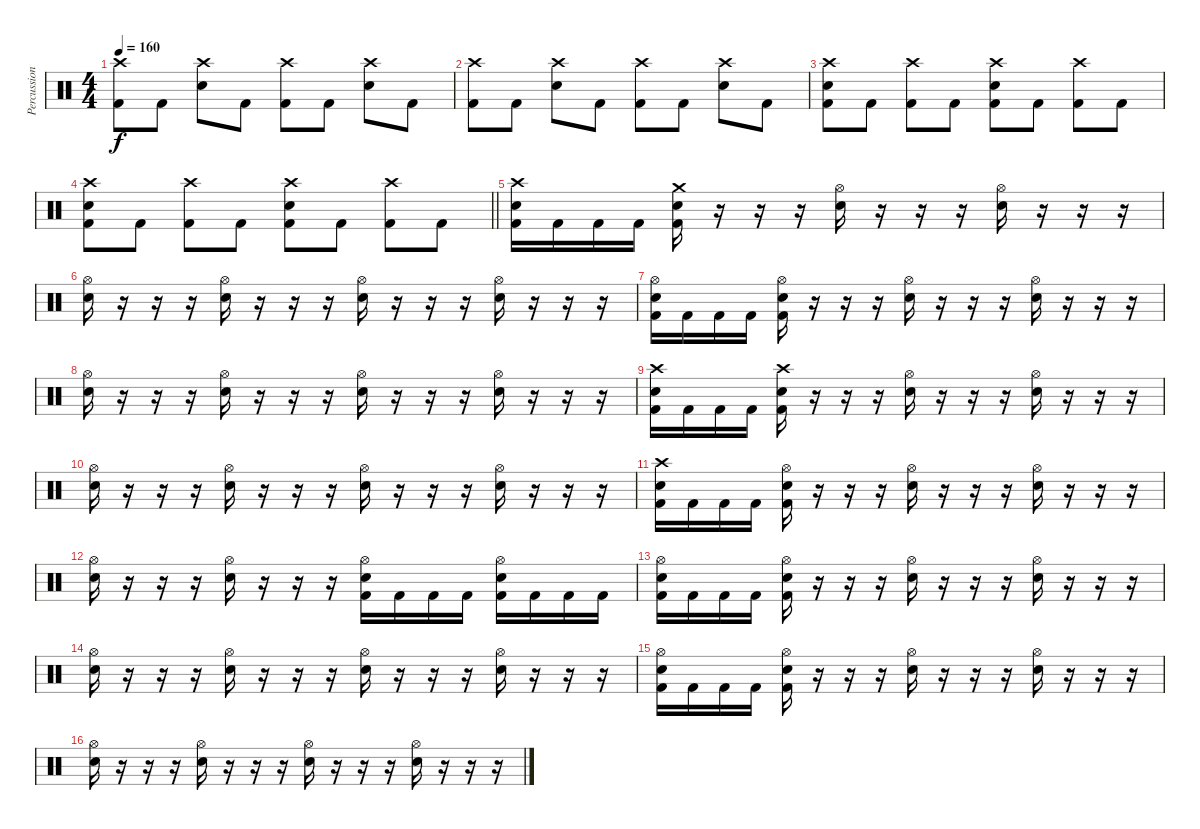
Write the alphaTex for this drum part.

\track ("Percussion" "Percussion") {instrument percussion}
\staff {score}
\articulation defaults
\ts (4 4)
\tempo 160
\clef neutral
\ks c
("Crash high (hit)" "Kick (hit) 2").8{dy f} "Kick (hit) 2".8 ("Crash high (hit)" "Snare (hit) 2").8 "Kick (hit) 2".8 ("Crash high (hit)" "Kick (hit) 2").8 "Kick (hit) 2".8 ("Crash high (hit)" "Snare (hit) 2").8 "Kick (hit) 2".8 |
("Crash high (hit)" "Kick (hit) 2").8 "Kick (hit) 2".8 ("Crash high (hit)" "Snare (hit) 2").8 "Kick (hit) 2".8 ("Crash high (hit)" "Kick (hit) 2").8 "Kick (hit) 2".8 ("Crash high (hit)" "Snare (hit) 2").8 "Kick (hit) 2".8 |
("Crash high (hit)" "Snare (hit) 2" "Kick (hit) 2").8 "Kick (hit) 2".8 ("Crash high (hit)" "Kick (hit) 2").8 "Kick (hit) 2".8 ("Crash high (hit)" "Snare (hit) 2" "Kick (hit) 2").8 "Kick (hit) 2".8 ("Crash high (hit)" "Kick (hit) 2").8 "Kick (hit) 2".8 |
\barLineRight lightlight
("Crash high (hit)" "Snare (hit) 2" "Kick (hit) 2").8 "Kick (hit) 2".8 ("Crash high (hit)" "Kick (hit) 2").8 "Kick (hit) 2".8 ("Crash high (hit)" "Snare (hit) 2" "Kick (hit) 2").8 "Kick (hit) 2".8 ("Crash high (hit)" "Kick (hit) 2").8 "Kick (hit) 2".8 |
\section ("" "")
("Crash high (hit)" "Snare (hit) 2" "Kick (hit) 2").16 "Kick (hit) 2".16 "Kick (hit) 2".16 "Kick (hit) 2".16 ("Crash medium (hit)" "Snare (hit) 2" "Kick (hit) 2").16 r.16 r.16 r.16 ("Hi-Hat (open)" "Snare (hit) 2").16 r.16 r.16 r.16 ("Hi-Hat (open)" "Snare (hit) 2").16 r.16 r.16 r.16 |
("Hi-Hat (open)" "Snare (hit) 2").16 r.16 r.16 r.16 ("Hi-Hat (open)" "Snare (hit) 2").16 r.16 r.16 r.16 ("Hi-Hat (open)" "Snare (hit) 2").16 r.16 r.16 r.16 ("Hi-Hat (open)" "Snare (hit) 2").16 r.16 r.16 r.16 |
("Hi-Hat (open)" "Snare (hit) 2" "Kick (hit) 2").16 "Kick (hit) 2".16 "Kick (hit) 2".16 "Kick (hit) 2".16 ("Hi-Hat (open)" "Snare (hit) 2" "Kick (hit) 2").16 r.16 r.16 r.16 ("Hi-Hat (open)" "Snare (hit) 2").16 r.16 r.16 r.16 ("Hi-Hat (open)" "Snare (hit) 2").16 r.16 r.16 r.16 |
("Hi-Hat (open)" "Snare (hit) 2").16 r.16 r.16 r.16 ("Hi-Hat (open)" "Snare (hit) 2").16 r.16 r.16 r.16 ("Hi-Hat (open)" "Snare (hit) 2").16 r.16 r.16 r.16 ("Hi-Hat (open)" "Snare (hit) 2").16 r.16 r.16 r.16 |
("Crash high (hit)" "Snare (hit) 2" "Kick (hit) 2").16 "Kick (hit) 2".16 "Kick (hit) 2".16 "Kick (hit) 2".16 ("Crash high (hit)" "Snare (hit) 2" "Kick (hit) 2").16 r.16 r.16 r.16 ("Hi-Hat (open)" "Snare (hit) 2").16 r.16 r.16 r.16 ("Hi-Hat (open)" "Snare (hit) 2").16 r.16 r.16 r.16 |
("Hi-Hat (open)" "Snare (hit) 2").16 r.16 r.16 r.16 ("Hi-Hat (open)" "Snare (hit) 2").16 r.16 r.16 r.16 ("Hi-Hat (open)" "Snare (hit) 2").16 r.16 r.16 r.16 ("Hi-Hat (open)" "Snare (hit) 2").16 r.16 r.16 r.16 |
("Crash high (hit)" "Snare (hit) 2" "Kick (hit) 2").16 "Kick (hit) 2".16 "Kick (hit) 2".16 "Kick (hit) 2".16 ("Hi-Hat (open)" "Snare (hit) 2" "Kick (hit) 2").16 r.16 r.16 r.16 ("Hi-Hat (open)" "Snare (hit) 2").16 r.16 r.16 r.16 ("Hi-Hat (open)" "Snare (hit) 2").16 r.16 r.16 r.16 |
("Hi-Hat (open)" "Snare (hit) 2").16 r.16 r.16 r.16 ("Hi-Hat (open)" "Snare (hit) 2").16 r.16 r.16 r.16 ("Hi-Hat (open)" "Snare (hit) 2" "Kick (hit) 2").16 "Kick (hit) 2".16 "Kick (hit) 2".16 "Kick (hit) 2".16 ("Hi-Hat (open)" "Snare (hit) 2" "Kick (hit) 2").16 "Kick (hit) 2".16 "Kick (hit) 2".16 "Kick (hit) 2".16 |
("Hi-Hat (open)" "Snare (hit) 2" "Kick (hit) 2").16 "Kick (hit) 2".16 "Kick (hit) 2".16 "Kick (hit) 2".16 ("Hi-Hat (open)" "Snare (hit) 2" "Kick (hit) 2").16 r.16 r.16 r.16 ("Hi-Hat (open)" "Snare (hit) 2").16 r.16 r.16 r.16 ("Hi-Hat (open)" "Snare (hit) 2").16 r.16 r.16 r.16 |
("Hi-Hat (open)" "Snare (hit) 2").16 r.16 r.16 r.16 ("Hi-Hat (open)" "Snare (hit) 2").16 r.16 r.16 r.16 ("Hi-Hat (open)" "Snare (hit) 2").16 r.16 r.16 r.16 ("Hi-Hat (open)" "Snare (hit) 2").16 r.16 r.16 r.16 |
("Hi-Hat (open)" "Snare (hit) 2" "Kick (hit) 2").16 "Kick (hit) 2".16 "Kick (hit) 2".16 "Kick (hit) 2".16 ("Hi-Hat (open)" "Snare (hit) 2" "Kick (hit) 2").16 r.16 r.16 r.16 ("Hi-Hat (open)" "Snare (hit) 2").16 r.16 r.16 r.16 ("Hi-Hat (open)" "Snare (hit) 2").16 r.16 r.16 r.16 |
("Hi-Hat (open)" "Snare (hit) 2").16 r.16 r.16 r.16 ("Hi-Hat (open)" "Snare (hit) 2").16 r.16 r.16 r.16 ("Hi-Hat (open)" "Snare (hit) 2").16 r.16 r.16 r.16 ("Hi-Hat (open)" "Snare (hit) 2").16 r.16 r.16 r.16
